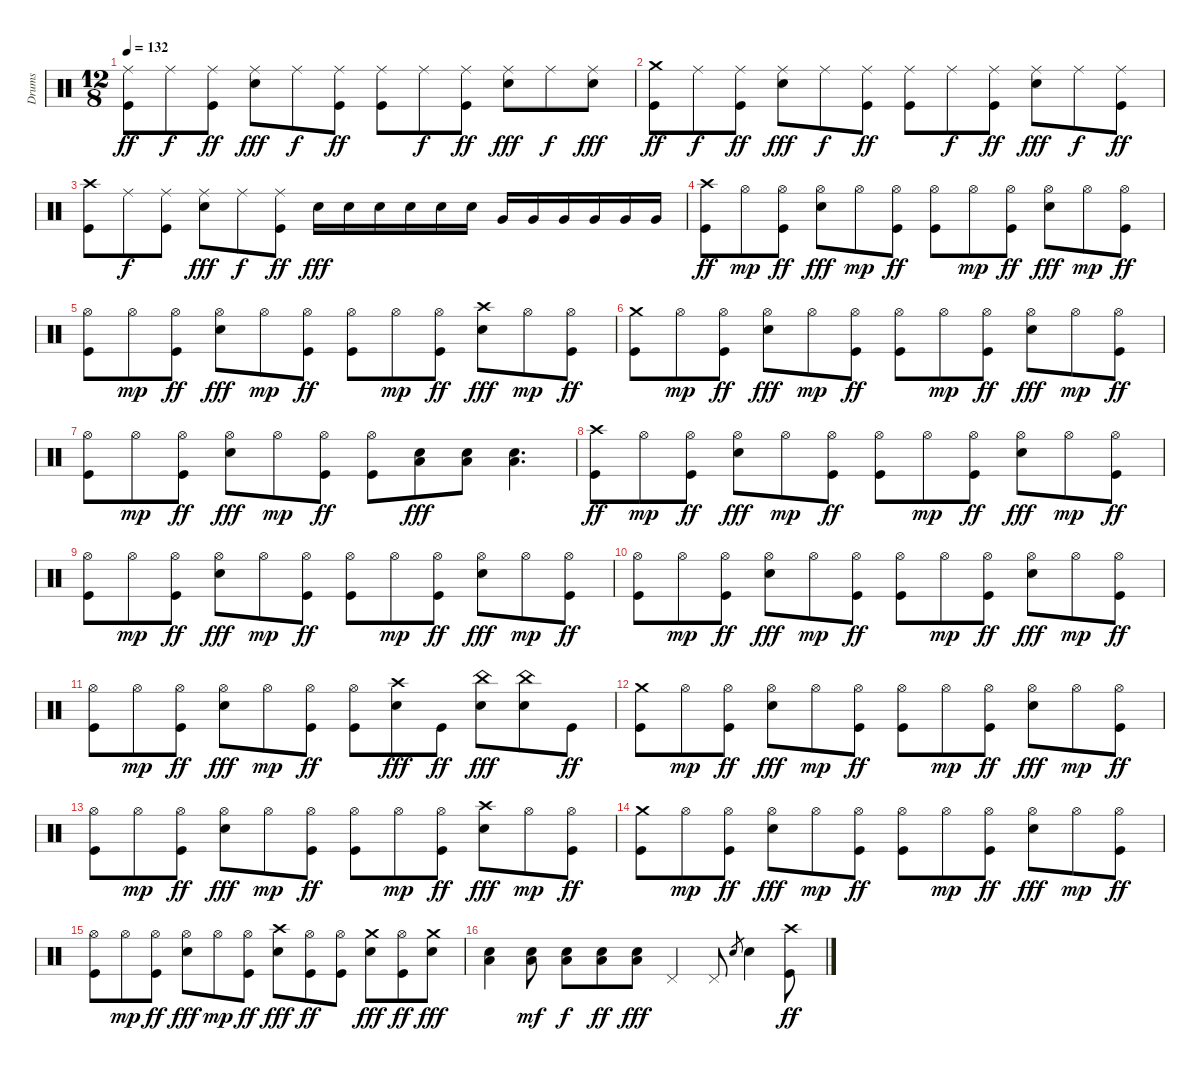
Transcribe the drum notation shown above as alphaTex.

\track ("Drums" "Drums") {instrument percussion}
\staff {score}
\articulation defaults
\ts (12 8)
\tempo 132
\clef neutral
\ks c
("Ride (middle)" "Kick (hit)").8{dy ff} "Ride (middle)".8{dy f} ("Ride (middle)" "Kick (hit)").8{dy ff} ("Ride (middle)" "Snare (hit) 2").8{dy fff} "Ride (middle)".8{dy f} ("Ride (middle)" "Kick (hit)").8{dy ff} ("Ride (middle)" "Kick (hit)").8 "Ride (middle)".8{dy f} ("Ride (middle)" "Kick (hit)").8{dy ff} ("Ride (middle)" "Snare (hit) 2").8{dy fff} "Ride (middle)".8{dy f} ("Ride (middle)" "Snare (hit) 2").8{dy fff} |
("Crash medium (hit)" "Kick (hit)").8{dy ff} "Ride (middle)".8{dy f} ("Ride (middle)" "Kick (hit)").8{dy ff} ("Ride (middle)" "Snare (hit) 2").8{dy fff} "Ride (middle)".8{dy f} ("Ride (middle)" "Kick (hit)").8{dy ff} ("Ride (middle)" "Kick (hit)").8 "Ride (middle)".8{dy f} ("Ride (middle)" "Kick (hit)").8{dy ff} ("Ride (middle)" "Snare (hit) 2").8{dy fff} "Ride (middle)".8{dy f} ("Ride (middle)" "Kick (hit)").8{dy ff} |
("Crash high (hit)" "Kick (hit)").8 "Ride (middle)".8{dy f} ("Ride (middle)" "Kick (hit)").8 ("Ride (middle)" "Snare (hit) 2").8{dy fff} "Ride (middle)".8{dy f} ("Ride (middle)" "Kick (hit)").8{dy ff} "Snare (hit) 2".16{dy fff} "Snare (hit) 2".16 "Snare (hit) 2".16 "Snare (hit) 2".16 "Snare (hit) 2".16 "Snare (hit) 2".16 "Very Low Tom (hit)".16 "Very Low Tom (hit)".16 "Very Low Tom (hit)".16 "Very Low Tom (hit)".16 "Very Low Tom (hit)".16 "Very Low Tom (hit)".16 |
("Crash high (hit)" "Kick (hit)").8{dy ff} "Hi-Hat (open)".8{dy mp} ("Hi-Hat (open)" "Kick (hit)").8{dy ff} ("Hi-Hat (open)" "Snare (hit) 2").8{dy fff} "Hi-Hat (open)".8{dy mp} ("Hi-Hat (open)" "Kick (hit)").8{dy ff} ("Hi-Hat (open)" "Kick (hit)").8 "Hi-Hat (open)".8{dy mp} ("Hi-Hat (open)" "Kick (hit)").8{dy ff} ("Hi-Hat (open)" "Snare (hit) 2").8{dy fff} "Hi-Hat (open)".8{dy mp} ("Hi-Hat (open)" "Kick (hit)").8{dy ff} |
("Hi-Hat (open)" "Kick (hit)").8 "Hi-Hat (open)".8{dy mp} ("Hi-Hat (open)" "Kick (hit)").8{dy ff} ("Hi-Hat (open)" "Snare (hit) 2").8{dy fff} "Hi-Hat (open)".8{dy mp} ("Hi-Hat (open)" "Kick (hit)").8{dy ff} ("Hi-Hat (open)" "Kick (hit)").8 "Hi-Hat (open)".8{dy mp} ("Hi-Hat (open)" "Kick (hit)").8{dy ff} ("Crash high (hit)" "Snare (hit) 2").8{dy fff} "Hi-Hat (open)".8{dy mp} ("Hi-Hat (open)" "Kick (hit)").8{dy ff} |
("Crash medium (hit)" "Kick (hit)").8 "Hi-Hat (open)".8{dy mp} ("Hi-Hat (open)" "Kick (hit)").8{dy ff} ("Hi-Hat (open)" "Snare (hit) 2").8{dy fff} "Hi-Hat (open)".8{dy mp} ("Hi-Hat (open)" "Kick (hit)").8{dy ff} ("Hi-Hat (open)" "Kick (hit)").8 "Hi-Hat (open)".8{dy mp} ("Hi-Hat (open)" "Kick (hit)").8{dy ff} ("Hi-Hat (open)" "Snare (hit) 2").8{dy fff} "Hi-Hat (open)".8{dy mp} ("Hi-Hat (open)" "Kick (hit)").8{dy ff} |
("Hi-Hat (open)" "Kick (hit)").8 "Hi-Hat (open)".8{dy mp} ("Hi-Hat (open)" "Kick (hit)").8{dy ff} ("Hi-Hat (open)" "Snare (hit) 2").8{dy fff} "Hi-Hat (open)".8{dy mp} ("Hi-Hat (open)" "Kick (hit)").8{dy ff} ("Hi-Hat (open)" "Kick (hit)").8 ("Low Floor Tom (hit)" "Snare (hit) 2").8{dy fff} ("Low Floor Tom (hit)" "Snare (hit) 2").8 ("Low Floor Tom (hit)" "Snare (hit) 2").4{d} |
("Crash high (hit)" "Kick (hit)").8{dy ff} "Hi-Hat (open)".8{dy mp} ("Hi-Hat (open)" "Kick (hit)").8{dy ff} ("Hi-Hat (open)" "Snare (hit) 2").8{dy fff} "Hi-Hat (open)".8{dy mp} ("Hi-Hat (open)" "Kick (hit)").8{dy ff} ("Hi-Hat (open)" "Kick (hit)").8 "Hi-Hat (open)".8{dy mp} ("Hi-Hat (open)" "Kick (hit)").8{dy ff} ("Hi-Hat (open)" "Snare (hit) 2").8{dy fff} "Hi-Hat (open)".8{dy mp} ("Hi-Hat (open)" "Kick (hit)").8{dy ff} |
("Hi-Hat (open)" "Kick (hit)").8 "Hi-Hat (open)".8{dy mp} ("Hi-Hat (open)" "Kick (hit)").8{dy ff} ("Hi-Hat (open)" "Snare (hit) 2").8{dy fff} "Hi-Hat (open)".8{dy mp} ("Hi-Hat (open)" "Kick (hit)").8{dy ff} ("Hi-Hat (open)" "Kick (hit)").8 "Hi-Hat (open)".8{dy mp} ("Hi-Hat (open)" "Kick (hit)").8{dy ff} ("Hi-Hat (open)" "Snare (hit) 2").8{dy fff} "Hi-Hat (open)".8{dy mp} ("Hi-Hat (open)" "Kick (hit)").8{dy ff} |
("Hi-Hat (open)" "Kick (hit)").8 "Hi-Hat (open)".8{dy mp} ("Hi-Hat (open)" "Kick (hit)").8{dy ff} ("Hi-Hat (open)" "Snare (hit) 2").8{dy fff} "Hi-Hat (open)".8{dy mp} ("Hi-Hat (open)" "Kick (hit)").8{dy ff} ("Hi-Hat (open)" "Kick (hit)").8 "Hi-Hat (open)".8{dy mp} ("Hi-Hat (open)" "Kick (hit)").8{dy ff} ("Hi-Hat (open)" "Snare (hit) 2").8{dy fff} "Hi-Hat (open)".8{dy mp} ("Hi-Hat (open)" "Kick (hit)").8{dy ff} |
("Hi-Hat (open)" "Kick (hit)").8 "Hi-Hat (open)".8{dy mp} ("Hi-Hat (open)" "Kick (hit)").8{dy ff} ("Hi-Hat (open)" "Snare (hit) 2").8{dy fff} "Hi-Hat (open)".8{dy mp} ("Hi-Hat (open)" "Kick (hit)").8{dy ff} ("Hi-Hat (open)" "Kick (hit)").8 ("Crash high (hit)" "Snare (hit) 2").8{dy fff} "Kick (hit)".8{dy ff} ("China (hit)" "Snare (hit) 2").8{dy fff} ("China (hit)" "Snare (hit) 2").8 "Kick (hit)".8{dy ff} |
("Crash medium (hit)" "Kick (hit)").8 "Hi-Hat (open)".8{dy mp} ("Hi-Hat (open)" "Kick (hit)").8{dy ff} ("Hi-Hat (open)" "Snare (hit) 2").8{dy fff} "Hi-Hat (open)".8{dy mp} ("Hi-Hat (open)" "Kick (hit)").8{dy ff} ("Hi-Hat (open)" "Kick (hit)").8 "Hi-Hat (open)".8{dy mp} ("Hi-Hat (open)" "Kick (hit)").8{dy ff} ("Hi-Hat (open)" "Snare (hit) 2").8{dy fff} "Hi-Hat (open)".8{dy mp} ("Hi-Hat (open)" "Kick (hit)").8{dy ff} |
("Hi-Hat (open)" "Kick (hit)").8 "Hi-Hat (open)".8{dy mp} ("Hi-Hat (open)" "Kick (hit)").8{dy ff} ("Hi-Hat (open)" "Snare (hit) 2").8{dy fff} "Hi-Hat (open)".8{dy mp} ("Hi-Hat (open)" "Kick (hit)").8{dy ff} ("Hi-Hat (open)" "Kick (hit)").8 "Hi-Hat (open)".8{dy mp} ("Hi-Hat (open)" "Kick (hit)").8{dy ff} ("Crash high (hit)" "Snare (hit) 2").8{dy fff} "Hi-Hat (open)".8{dy mp} ("Hi-Hat (open)" "Kick (hit)").8{dy ff} |
("Crash medium (hit)" "Kick (hit)").8 "Hi-Hat (open)".8{dy mp} ("Hi-Hat (open)" "Kick (hit)").8{dy ff} ("Hi-Hat (open)" "Snare (hit) 2").8{dy fff} "Hi-Hat (open)".8{dy mp} ("Hi-Hat (open)" "Kick (hit)").8{dy ff} ("Hi-Hat (open)" "Kick (hit)").8 "Hi-Hat (open)".8{dy mp} ("Hi-Hat (open)" "Kick (hit)").8{dy ff} ("Hi-Hat (open)" "Snare (hit) 2").8{dy fff} "Hi-Hat (open)".8{dy mp} ("Hi-Hat (open)" "Kick (hit)").8{dy ff} |
("Hi-Hat (open)" "Kick (hit)").8 "Hi-Hat (open)".8{dy mp} ("Hi-Hat (open)" "Kick (hit)").8{dy ff} ("Hi-Hat (open)" "Snare (hit) 2").8{dy fff} "Hi-Hat (open)".8{dy mp} ("Hi-Hat (open)" "Kick (hit)").8{dy ff} ("Crash high (hit)" "Snare (hit) 2").8{dy fff} ("Hi-Hat (open)" "Kick (hit)").8{dy ff} ("Hi-Hat (open)" "Kick (hit)").8 ("Crash medium (hit)" "Snare (hit) 2").8{dy fff} ("Hi-Hat (open)" "Kick (hit)").8{dy ff} ("Crash medium (hit)" "Snare (hit) 2").8{dy fff} |
("Low Floor Tom (hit)" "Snare (hit) 2").4 ("Low Floor Tom (hit)" "Snare (hit) 2").8{dy mf} ("Low Floor Tom (hit)" "Snare (hit) 2").8{dy f} ("Low Floor Tom (hit)" "Snare (hit) 2").8{dy ff} ("Low Floor Tom (hit)" "Snare (hit) 2").8{dy fff} "Pedal Hi-Hat (hit)".4 "Pedal Hi-Hat (hit)".8 "Snare (hit) 2".8{gr} "Snare (hit) 2".4 ("Crash high (hit)" "Kick (hit)").8{dy ff}
